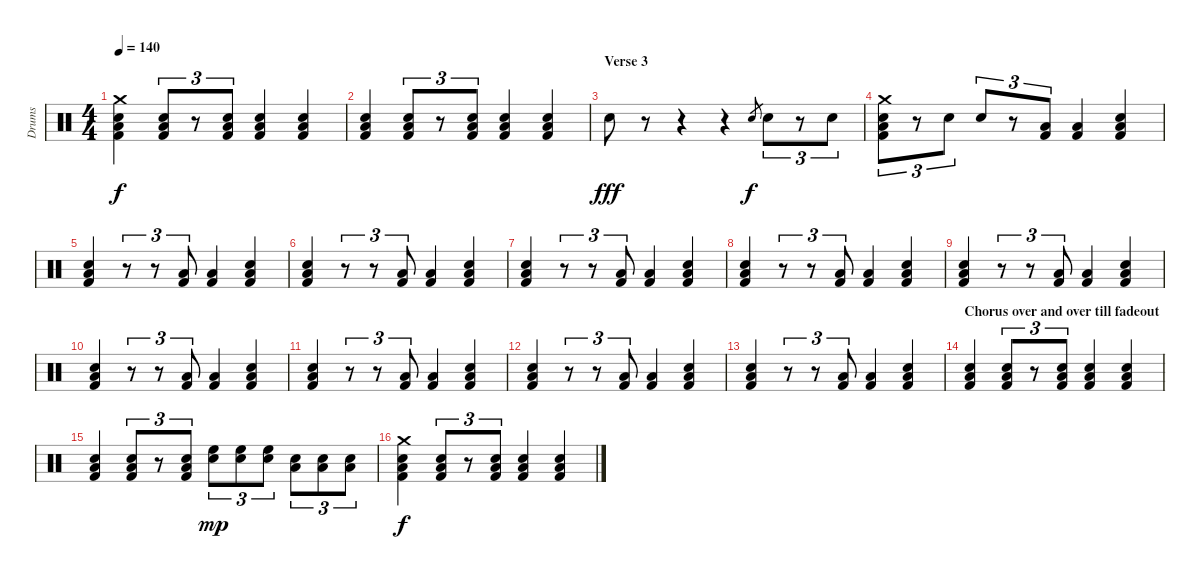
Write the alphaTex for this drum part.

\track ("Drums" "Drums") {instrument percussion}
\staff {score}
\articulation defaults
\ts (4 4)
\tempo 140
\clef neutral
\ks c
("Kick (hit) 2" "Snare (hit) 2" "Low Floor Tom (hit)" "Crash medium (hit)").4{dy f} ("Kick (hit) 2" "Snare (hit) 2" "Low Floor Tom (hit)").8{tu (3 2)} r.8{tu (3 2)} ("Kick (hit) 2" "Snare (hit) 2" "Low Floor Tom (hit)").8{tu (3 2)} ("Kick (hit) 2" "Snare (hit) 2" "Low Floor Tom (hit)").4 ("Kick (hit) 2" "Snare (hit) 2" "Low Floor Tom (hit)").4 |
("Kick (hit) 2" "Snare (hit) 2" "Low Floor Tom (hit)").4 ("Kick (hit) 2" "Snare (hit) 2" "Low Floor Tom (hit)").8{tu (3 2)} r.8{tu (3 2)} ("Kick (hit) 2" "Snare (hit) 2" "Low Floor Tom (hit)").8{tu (3 2)} ("Kick (hit) 2" "Snare (hit) 2" "Low Floor Tom (hit)").4 ("Kick (hit) 2" "Snare (hit) 2" "Low Floor Tom (hit)").4 |
\section ("" "Verse 3")
"Snare (hit) 2".8{dy fff} r.8 r.4 r.4 "Snare (hit) 2".8{gr dy f} "Snare (hit) 2".8{tu (3 2)} r.8{tu (3 2)} "Snare (hit) 2".8{tu (3 2)} |
("Kick (hit) 2" "Snare (hit) 2" "Low Floor Tom (hit)" "Crash medium (hit)").8{tu (3 2)} r.8{tu (3 2)} "Snare (hit) 2".8{tu (3 2)} "Snare (hit) 2".8{tu (3 2)} r.8{tu (3 2)} ("Kick (hit) 2" "Low Floor Tom (hit)").8{tu (3 2)} ("Kick (hit) 2" "Low Floor Tom (hit)").4 ("Kick (hit) 2" "Snare (hit) 2" "Low Floor Tom (hit)").4 |
("Kick (hit) 2" "Snare (hit) 2" "Low Floor Tom (hit)").4 r.8{tu (3 2)} r.8{tu (3 2)} ("Kick (hit) 2" "Low Floor Tom (hit)").8{tu (3 2)} ("Kick (hit) 2" "Low Floor Tom (hit)").4 ("Kick (hit) 2" "Snare (hit) 2" "Low Floor Tom (hit)").4 |
("Kick (hit) 2" "Snare (hit) 2" "Low Floor Tom (hit)").4 r.8{tu (3 2)} r.8{tu (3 2)} ("Kick (hit) 2" "Low Floor Tom (hit)").8{tu (3 2)} ("Kick (hit) 2" "Low Floor Tom (hit)").4 ("Kick (hit) 2" "Snare (hit) 2" "Low Floor Tom (hit)").4 |
("Kick (hit) 2" "Snare (hit) 2" "Low Floor Tom (hit)").4 r.8{tu (3 2)} r.8{tu (3 2)} ("Kick (hit) 2" "Low Floor Tom (hit)").8{tu (3 2)} ("Kick (hit) 2" "Low Floor Tom (hit)").4 ("Kick (hit) 2" "Snare (hit) 2" "Low Floor Tom (hit)").4 |
("Kick (hit) 2" "Snare (hit) 2" "Low Floor Tom (hit)").4 r.8{tu (3 2)} r.8{tu (3 2)} ("Kick (hit) 2" "Low Floor Tom (hit)").8{tu (3 2)} ("Kick (hit) 2" "Low Floor Tom (hit)").4 ("Kick (hit) 2" "Snare (hit) 2" "Low Floor Tom (hit)").4 |
("Kick (hit) 2" "Snare (hit) 2" "Low Floor Tom (hit)").4 r.8{tu (3 2)} r.8{tu (3 2)} ("Kick (hit) 2" "Low Floor Tom (hit)").8{tu (3 2)} ("Kick (hit) 2" "Low Floor Tom (hit)").4 ("Kick (hit) 2" "Snare (hit) 2" "Low Floor Tom (hit)").4 |
("Kick (hit) 2" "Snare (hit) 2" "Low Floor Tom (hit)").4 r.8{tu (3 2)} r.8{tu (3 2)} ("Kick (hit) 2" "Low Floor Tom (hit)").8{tu (3 2)} ("Kick (hit) 2" "Low Floor Tom (hit)").4 ("Kick (hit) 2" "Snare (hit) 2" "Low Floor Tom (hit)").4 |
("Kick (hit) 2" "Snare (hit) 2" "Low Floor Tom (hit)").4 r.8{tu (3 2)} r.8{tu (3 2)} ("Kick (hit) 2" "Low Floor Tom (hit)").8{tu (3 2)} ("Kick (hit) 2" "Low Floor Tom (hit)").4 ("Kick (hit) 2" "Snare (hit) 2" "Low Floor Tom (hit)").4 |
("Kick (hit) 2" "Snare (hit) 2" "Low Floor Tom (hit)").4 r.8{tu (3 2)} r.8{tu (3 2)} ("Kick (hit) 2" "Low Floor Tom (hit)").8{tu (3 2)} ("Kick (hit) 2" "Low Floor Tom (hit)").4 ("Kick (hit) 2" "Snare (hit) 2" "Low Floor Tom (hit)").4 |
("Kick (hit) 2" "Snare (hit) 2" "Low Floor Tom (hit)").4 r.8{tu (3 2)} r.8{tu (3 2)} ("Kick (hit) 2" "Low Floor Tom (hit)").8{tu (3 2)} ("Kick (hit) 2" "Low Floor Tom (hit)").4 ("Kick (hit) 2" "Snare (hit) 2" "Low Floor Tom (hit)").4 |
\section ("" "Chorus over and over till fadeout")
("Kick (hit) 2" "Snare (hit) 2" "Low Floor Tom (hit)").4 ("Kick (hit) 2" "Snare (hit) 2" "Low Floor Tom (hit)").8{tu (3 2)} r.8{tu (3 2)} ("Kick (hit) 2" "Snare (hit) 2" "Low Floor Tom (hit)").8{tu (3 2)} ("Kick (hit) 2" "Snare (hit) 2" "Low Floor Tom (hit)").4 ("Kick (hit) 2" "Snare (hit) 2" "Low Floor Tom (hit)").4 |
("Kick (hit) 2" "Snare (hit) 2" "Low Floor Tom (hit)").4 ("Kick (hit) 2" "Snare (hit) 2" "Low Floor Tom (hit)").8{tu (3 2)} r.8{tu (3 2)} ("Kick (hit) 2" "Snare (hit) 2" "Low Floor Tom (hit)").8{tu (3 2)} ("Snare (hit) 2" "High Floor Tom (hit)").8{tu (3 2) dy mp} ("Snare (hit) 2" "High Floor Tom (hit)").8{tu (3 2)} ("Snare (hit) 2" "High Floor Tom (hit)").8{tu (3 2)} ("Snare (hit) 2" "Low Tom (hit)").8{tu (3 2)} ("Snare (hit) 2" "Low Tom (hit)").8{tu (3 2)} ("Snare (hit) 2" "Low Tom (hit)").8{tu (3 2)} |
("Kick (hit) 2" "Snare (hit) 2" "Low Floor Tom (hit)" "Crash medium (hit)").4{dy f} ("Kick (hit) 2" "Snare (hit) 2" "Low Floor Tom (hit)").8{tu (3 2)} r.8{tu (3 2)} ("Kick (hit) 2" "Snare (hit) 2" "Low Floor Tom (hit)").8{tu (3 2)} ("Kick (hit) 2" "Snare (hit) 2" "Low Floor Tom (hit)").4 ("Kick (hit) 2" "Snare (hit) 2" "Low Floor Tom (hit)").4
